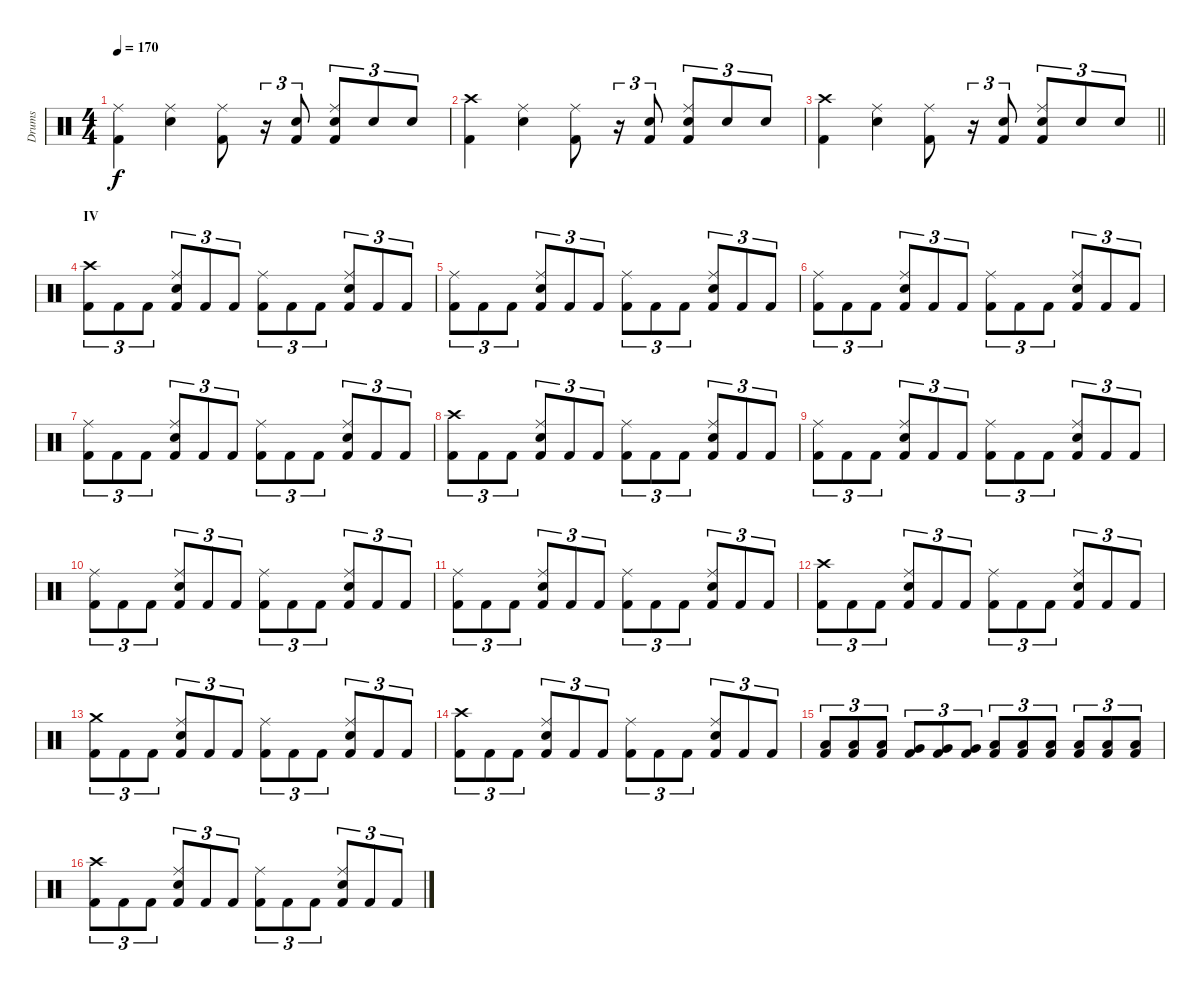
\track ("Drums" "Drums") {instrument percussion}
\staff {score}
\articulation defaults
\ts (4 4)
\tempo 170
\clef neutral
\ks c
("Kick (hit) 2" "Ride (middle)").4{dy f} ("Snare (hit) 2" "Ride (middle)").4 ("Kick (hit) 2" "Ride (middle)").8 r.16{tu (3 2)} ("Kick (hit) 2" "Snare (hit) 2").8{tu (3 2)} ("Kick (hit) 2" "Snare (hit) 2" "Ride (middle)").8{tu (3 2)} "Snare (hit) 2".8{tu (3 2)} "Snare (hit) 2".8{tu (3 2)} |
("Kick (hit) 2" "Crash high (hit)").4 ("Snare (hit) 2" "Ride (middle)").4 ("Kick (hit) 2" "Ride (middle)").8 r.16{tu (3 2)} ("Kick (hit) 2" "Snare (hit) 2").8{tu (3 2)} ("Kick (hit) 2" "Snare (hit) 2" "Ride (middle)").8{tu (3 2)} "Snare (hit) 2".8{tu (3 2)} "Snare (hit) 2".8{tu (3 2)} |
\barLineRight lightlight
("Kick (hit) 2" "Crash high (hit)").4 ("Snare (hit) 2" "Ride (middle)").4 ("Kick (hit) 2" "Ride (middle)").8 r.16{tu (3 2)} ("Kick (hit) 2" "Snare (hit) 2").8{tu (3 2)} ("Kick (hit) 2" "Snare (hit) 2" "Ride (middle)").8{tu (3 2)} "Snare (hit) 2".8{tu (3 2)} "Snare (hit) 2".8{tu (3 2)} |
\section ("" "IV")
("Kick (hit) 2" "Crash high (hit)").8{tu (3 2)} "Kick (hit) 2".8{tu (3 2)} "Kick (hit) 2".8{tu (3 2)} ("Kick (hit) 2" "Snare (hit) 2" "Ride (middle)").8{tu (3 2)} "Kick (hit) 2".8{tu (3 2)} "Kick (hit) 2".8{tu (3 2)} ("Kick (hit) 2" "Ride (middle)").8{tu (3 2)} "Kick (hit) 2".8{tu (3 2)} "Kick (hit) 2".8{tu (3 2)} ("Kick (hit) 2" "Snare (hit) 2" "Ride (middle)").8{tu (3 2)} "Kick (hit) 2".8{tu (3 2)} "Kick (hit) 2".8{tu (3 2)} |
("Kick (hit) 2" "Ride (middle)").8{tu (3 2)} "Kick (hit) 2".8{tu (3 2)} "Kick (hit) 2".8{tu (3 2)} ("Kick (hit) 2" "Snare (hit) 2" "Ride (middle)").8{tu (3 2)} "Kick (hit) 2".8{tu (3 2)} "Kick (hit) 2".8{tu (3 2)} ("Kick (hit) 2" "Ride (middle)").8{tu (3 2)} "Kick (hit) 2".8{tu (3 2)} "Kick (hit) 2".8{tu (3 2)} ("Kick (hit) 2" "Snare (hit) 2" "Ride (middle)").8{tu (3 2)} "Kick (hit) 2".8{tu (3 2)} "Kick (hit) 2".8{tu (3 2)} |
("Kick (hit) 2" "Ride (middle)").8{tu (3 2)} "Kick (hit) 2".8{tu (3 2)} "Kick (hit) 2".8{tu (3 2)} ("Kick (hit) 2" "Snare (hit) 2" "Ride (middle)").8{tu (3 2)} "Kick (hit) 2".8{tu (3 2)} "Kick (hit) 2".8{tu (3 2)} ("Kick (hit) 2" "Ride (middle)").8{tu (3 2)} "Kick (hit) 2".8{tu (3 2)} "Kick (hit) 2".8{tu (3 2)} ("Kick (hit) 2" "Snare (hit) 2" "Ride (middle)").8{tu (3 2)} "Kick (hit) 2".8{tu (3 2)} "Kick (hit) 2".8{tu (3 2)} |
("Kick (hit) 2" "Ride (middle)").8{tu (3 2)} "Kick (hit) 2".8{tu (3 2)} "Kick (hit) 2".8{tu (3 2)} ("Kick (hit) 2" "Snare (hit) 2" "Ride (middle)").8{tu (3 2)} "Kick (hit) 2".8{tu (3 2)} "Kick (hit) 2".8{tu (3 2)} ("Kick (hit) 2" "Ride (middle)").8{tu (3 2)} "Kick (hit) 2".8{tu (3 2)} "Kick (hit) 2".8{tu (3 2)} ("Kick (hit) 2" "Snare (hit) 2" "Ride (middle)").8{tu (3 2)} "Kick (hit) 2".8{tu (3 2)} "Kick (hit) 2".8{tu (3 2)} |
("Kick (hit) 2" "Crash high (hit)").8{tu (3 2)} "Kick (hit) 2".8{tu (3 2)} "Kick (hit) 2".8{tu (3 2)} ("Kick (hit) 2" "Snare (hit) 2" "Ride (middle)").8{tu (3 2)} "Kick (hit) 2".8{tu (3 2)} "Kick (hit) 2".8{tu (3 2)} ("Kick (hit) 2" "Ride (middle)").8{tu (3 2)} "Kick (hit) 2".8{tu (3 2)} "Kick (hit) 2".8{tu (3 2)} ("Kick (hit) 2" "Snare (hit) 2" "Ride (middle)").8{tu (3 2)} "Kick (hit) 2".8{tu (3 2)} "Kick (hit) 2".8{tu (3 2)} |
("Kick (hit) 2" "Ride (middle)").8{tu (3 2)} "Kick (hit) 2".8{tu (3 2)} "Kick (hit) 2".8{tu (3 2)} ("Kick (hit) 2" "Snare (hit) 2" "Ride (middle)").8{tu (3 2)} "Kick (hit) 2".8{tu (3 2)} "Kick (hit) 2".8{tu (3 2)} ("Kick (hit) 2" "Ride (middle)").8{tu (3 2)} "Kick (hit) 2".8{tu (3 2)} "Kick (hit) 2".8{tu (3 2)} ("Kick (hit) 2" "Snare (hit) 2" "Ride (middle)").8{tu (3 2)} "Kick (hit) 2".8{tu (3 2)} "Kick (hit) 2".8{tu (3 2)} |
("Kick (hit) 2" "Ride (middle)").8{tu (3 2)} "Kick (hit) 2".8{tu (3 2)} "Kick (hit) 2".8{tu (3 2)} ("Kick (hit) 2" "Snare (hit) 2" "Ride (middle)").8{tu (3 2)} "Kick (hit) 2".8{tu (3 2)} "Kick (hit) 2".8{tu (3 2)} ("Kick (hit) 2" "Ride (middle)").8{tu (3 2)} "Kick (hit) 2".8{tu (3 2)} "Kick (hit) 2".8{tu (3 2)} ("Kick (hit) 2" "Snare (hit) 2" "Ride (middle)").8{tu (3 2)} "Kick (hit) 2".8{tu (3 2)} "Kick (hit) 2".8{tu (3 2)} |
("Kick (hit) 2" "Ride (middle)").8{tu (3 2)} "Kick (hit) 2".8{tu (3 2)} "Kick (hit) 2".8{tu (3 2)} ("Kick (hit) 2" "Snare (hit) 2" "Ride (middle)").8{tu (3 2)} "Kick (hit) 2".8{tu (3 2)} "Kick (hit) 2".8{tu (3 2)} ("Kick (hit) 2" "Ride (middle)").8{tu (3 2)} "Kick (hit) 2".8{tu (3 2)} "Kick (hit) 2".8{tu (3 2)} ("Kick (hit) 2" "Snare (hit) 2" "Ride (middle)").8{tu (3 2)} "Kick (hit) 2".8{tu (3 2)} "Kick (hit) 2".8{tu (3 2)} |
("Kick (hit) 2" "Crash high (hit)").8{tu (3 2)} "Kick (hit) 2".8{tu (3 2)} "Kick (hit) 2".8{tu (3 2)} ("Kick (hit) 2" "Snare (hit) 2" "Ride (middle)").8{tu (3 2)} "Kick (hit) 2".8{tu (3 2)} "Kick (hit) 2".8{tu (3 2)} ("Kick (hit) 2" "Ride (middle)").8{tu (3 2)} "Kick (hit) 2".8{tu (3 2)} "Kick (hit) 2".8{tu (3 2)} ("Kick (hit) 2" "Snare (hit) 2" "Ride (middle)").8{tu (3 2)} "Kick (hit) 2".8{tu (3 2)} "Kick (hit) 2".8{tu (3 2)} |
("Kick (hit) 2" "Crash medium (hit)").8{tu (3 2)} "Kick (hit) 2".8{tu (3 2)} "Kick (hit) 2".8{tu (3 2)} ("Kick (hit) 2" "Snare (hit) 2" "Ride (middle)").8{tu (3 2)} "Kick (hit) 2".8{tu (3 2)} "Kick (hit) 2".8{tu (3 2)} ("Kick (hit) 2" "Ride (middle)").8{tu (3 2)} "Kick (hit) 2".8{tu (3 2)} "Kick (hit) 2".8{tu (3 2)} ("Kick (hit) 2" "Snare (hit) 2" "Ride (middle)").8{tu (3 2)} "Kick (hit) 2".8{tu (3 2)} "Kick (hit) 2".8{tu (3 2)} |
("Kick (hit) 2" "Crash high (hit)").8{tu (3 2)} "Kick (hit) 2".8{tu (3 2)} "Kick (hit) 2".8{tu (3 2)} ("Kick (hit) 2" "Snare (hit) 2" "Ride (middle)").8{tu (3 2)} "Kick (hit) 2".8{tu (3 2)} "Kick (hit) 2".8{tu (3 2)} ("Kick (hit) 2" "Ride (middle)").8{tu (3 2)} "Kick (hit) 2".8{tu (3 2)} "Kick (hit) 2".8{tu (3 2)} ("Kick (hit) 2" "Snare (hit) 2" "Ride (middle)").8{tu (3 2)} "Kick (hit) 2".8{tu (3 2)} "Kick (hit) 2".8{tu (3 2)} |
("Kick (hit) 2" "Low Tom (hit)").8{tu (3 2)} ("Kick (hit) 2" "Low Tom (hit)").8{tu (3 2)} ("Kick (hit) 2" "Low Tom (hit)").8{tu (3 2)} ("Kick (hit) 2" "Very Low Tom (hit)").8{tu (3 2)} ("Kick (hit) 2" "Very Low Tom (hit)").8{tu (3 2)} ("Kick (hit) 2" "Very Low Tom (hit)").8{tu (3 2)} ("Kick (hit) 2" "Low Floor Tom (hit)").8{tu (3 2)} ("Kick (hit) 2" "Low Floor Tom (hit)").8{tu (3 2)} ("Kick (hit) 2" "Low Floor Tom (hit)").8{tu (3 2)} ("Kick (hit) 2" "Low Floor Tom (hit)").8{tu (3 2)} ("Kick (hit) 2" "Low Floor Tom (hit)").8{tu (3 2)} ("Kick (hit) 2" "Low Floor Tom (hit)").8{tu (3 2)} |
("Kick (hit) 2" "Crash high (hit)").8{tu (3 2)} "Kick (hit) 2".8{tu (3 2)} "Kick (hit) 2".8{tu (3 2)} ("Kick (hit) 2" "Snare (hit) 2" "Ride (middle)").8{tu (3 2)} "Kick (hit) 2".8{tu (3 2)} "Kick (hit) 2".8{tu (3 2)} ("Kick (hit) 2" "Ride (middle)").8{tu (3 2)} "Kick (hit) 2".8{tu (3 2)} "Kick (hit) 2".8{tu (3 2)} ("Kick (hit) 2" "Snare (hit) 2" "Ride (middle)").8{tu (3 2)} "Kick (hit) 2".8{tu (3 2)} "Kick (hit) 2".8{tu (3 2)}
